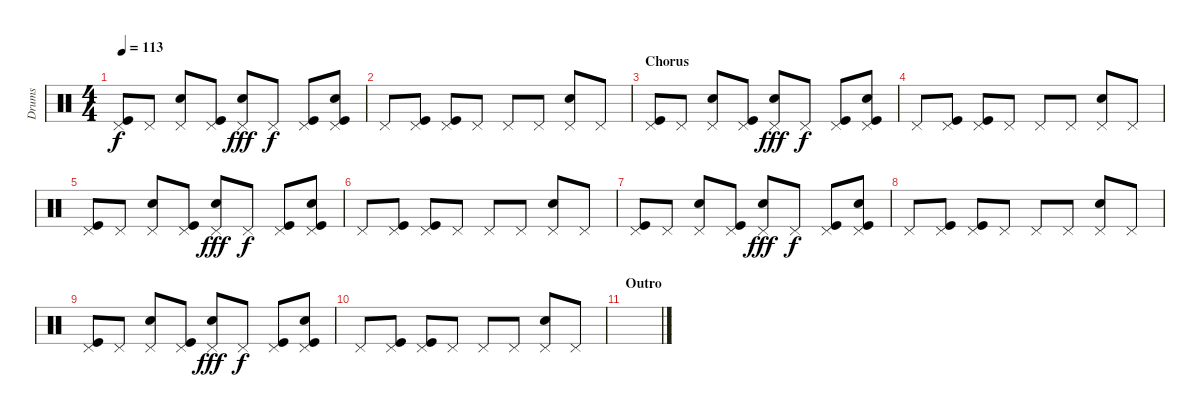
\track ("Drums" "Drums") {instrument percussion}
\staff {score}
\articulation defaults
\ts (4 4)
\tempo 113
\clef neutral
\ks c
("Pedal Hi-Hat (hit)" "Kick (hit)").8{dy f} "Pedal Hi-Hat (hit)".8 ("Pedal Hi-Hat (hit)" "Electric Snare (hit)").8 ("Pedal Hi-Hat (hit)" "Kick (hit)").8 ("Pedal Hi-Hat (hit)" "Snare (hit) 2").8{dy fff} "Pedal Hi-Hat (hit)".8{dy f} ("Pedal Hi-Hat (hit)" "Kick (hit)").8 ("Pedal Hi-Hat (hit)" "Electric Snare (hit)" "Kick (hit)").8 |
"Pedal Hi-Hat (hit)".8 ("Pedal Hi-Hat (hit)" "Kick (hit)").8 ("Pedal Hi-Hat (hit)" "Kick (hit)").8 "Pedal Hi-Hat (hit)".8 "Pedal Hi-Hat (hit)".8 "Pedal Hi-Hat (hit)".8 ("Pedal Hi-Hat (hit)" "Snare (hit) 2").8 "Pedal Hi-Hat (hit)".8 |
\section ("" "Chorus")
("Pedal Hi-Hat (hit)" "Kick (hit)").8 "Pedal Hi-Hat (hit)".8 ("Pedal Hi-Hat (hit)" "Electric Snare (hit)").8 ("Pedal Hi-Hat (hit)" "Kick (hit)").8 ("Pedal Hi-Hat (hit)" "Snare (hit) 2").8{dy fff} "Pedal Hi-Hat (hit)".8{dy f} ("Pedal Hi-Hat (hit)" "Kick (hit)").8 ("Pedal Hi-Hat (hit)" "Electric Snare (hit)" "Kick (hit)").8 |
"Pedal Hi-Hat (hit)".8 ("Pedal Hi-Hat (hit)" "Kick (hit)").8 ("Pedal Hi-Hat (hit)" "Kick (hit)").8 "Pedal Hi-Hat (hit)".8 "Pedal Hi-Hat (hit)".8 "Pedal Hi-Hat (hit)".8 ("Pedal Hi-Hat (hit)" "Snare (hit) 2").8 "Pedal Hi-Hat (hit)".8 |
("Pedal Hi-Hat (hit)" "Kick (hit)").8 "Pedal Hi-Hat (hit)".8 ("Pedal Hi-Hat (hit)" "Electric Snare (hit)").8 ("Pedal Hi-Hat (hit)" "Kick (hit)").8 ("Pedal Hi-Hat (hit)" "Snare (hit) 2").8{dy fff} "Pedal Hi-Hat (hit)".8{dy f} ("Pedal Hi-Hat (hit)" "Kick (hit)").8 ("Pedal Hi-Hat (hit)" "Electric Snare (hit)" "Kick (hit)").8 |
"Pedal Hi-Hat (hit)".8 ("Pedal Hi-Hat (hit)" "Kick (hit)").8 ("Pedal Hi-Hat (hit)" "Kick (hit)").8 "Pedal Hi-Hat (hit)".8 "Pedal Hi-Hat (hit)".8 "Pedal Hi-Hat (hit)".8 ("Pedal Hi-Hat (hit)" "Snare (hit) 2").8 "Pedal Hi-Hat (hit)".8 |
("Pedal Hi-Hat (hit)" "Kick (hit)").8 "Pedal Hi-Hat (hit)".8 ("Pedal Hi-Hat (hit)" "Electric Snare (hit)").8 ("Pedal Hi-Hat (hit)" "Kick (hit)").8 ("Pedal Hi-Hat (hit)" "Snare (hit) 2").8{dy fff} "Pedal Hi-Hat (hit)".8{dy f} ("Pedal Hi-Hat (hit)" "Kick (hit)").8 ("Pedal Hi-Hat (hit)" "Electric Snare (hit)" "Kick (hit)").8 |
"Pedal Hi-Hat (hit)".8 ("Pedal Hi-Hat (hit)" "Kick (hit)").8 ("Pedal Hi-Hat (hit)" "Kick (hit)").8 "Pedal Hi-Hat (hit)".8 "Pedal Hi-Hat (hit)".8 "Pedal Hi-Hat (hit)".8 ("Pedal Hi-Hat (hit)" "Snare (hit) 2").8 "Pedal Hi-Hat (hit)".8 |
("Pedal Hi-Hat (hit)" "Kick (hit)").8 "Pedal Hi-Hat (hit)".8 ("Pedal Hi-Hat (hit)" "Electric Snare (hit)").8 ("Pedal Hi-Hat (hit)" "Kick (hit)").8 ("Pedal Hi-Hat (hit)" "Snare (hit) 2").8{dy fff} "Pedal Hi-Hat (hit)".8{dy f} ("Pedal Hi-Hat (hit)" "Kick (hit)").8 ("Pedal Hi-Hat (hit)" "Electric Snare (hit)" "Kick (hit)").8 |
"Pedal Hi-Hat (hit)".8 ("Pedal Hi-Hat (hit)" "Kick (hit)").8 ("Pedal Hi-Hat (hit)" "Kick (hit)").8 "Pedal Hi-Hat (hit)".8 "Pedal Hi-Hat (hit)".8 "Pedal Hi-Hat (hit)".8 ("Pedal Hi-Hat (hit)" "Snare (hit) 2").8 "Pedal Hi-Hat (hit)".8 |
\section ("" "Outro")
